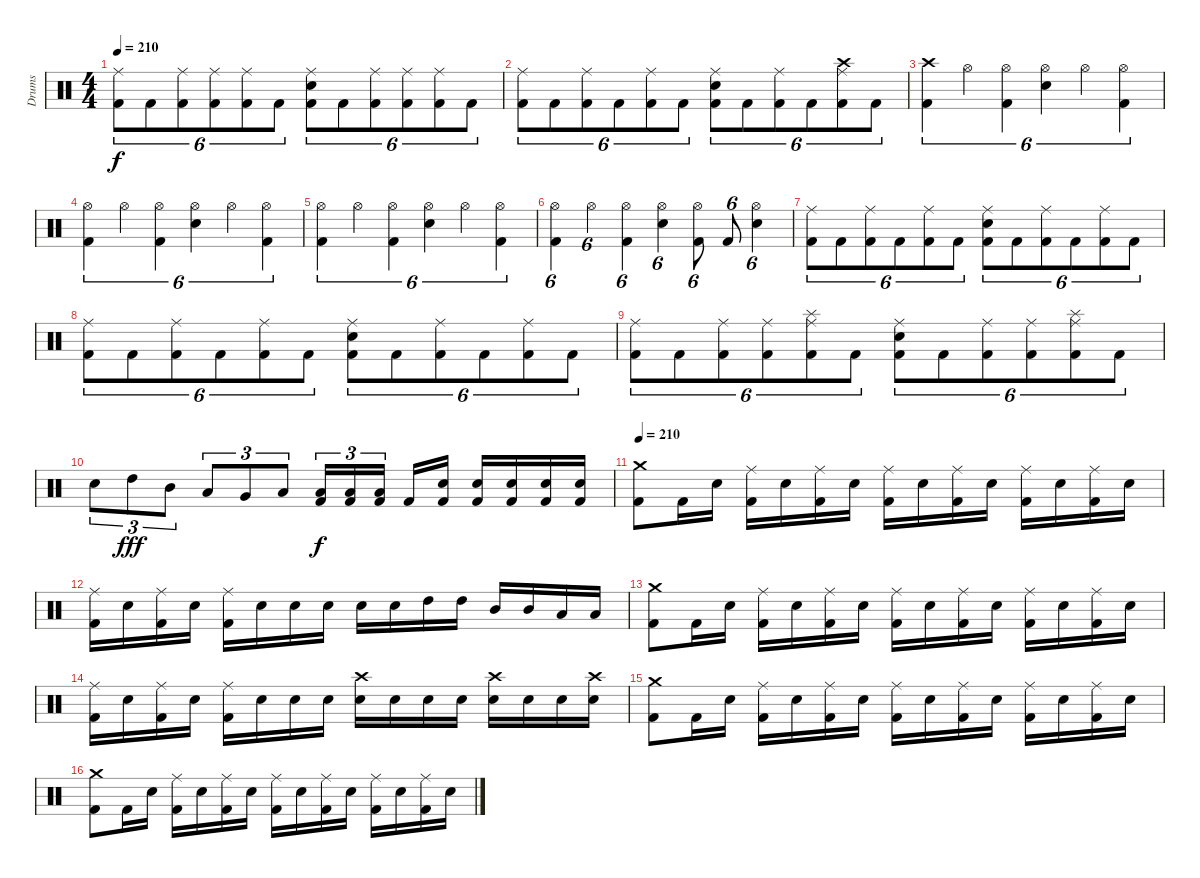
\track ("Drums" "Drums") {instrument percussion}
\staff {score}
\articulation defaults
\ts (4 4)
\tempo 210
\clef neutral
\ks c
("Kick (hit) 2" "Ride (middle)").8{tu (6 4) dy f} "Kick (hit) 2".8{tu (6 4)} ("Kick (hit) 2" "Ride (middle)").8{tu (6 4)} ("Kick (hit) 2" "Ride (middle)").8{tu (6 4)} ("Kick (hit) 2" "Ride (middle)").8{tu (6 4)} "Kick (hit) 2".8{tu (6 4)} ("Kick (hit) 2" "Snare (hit) 2" "Ride (middle)").8{tu (6 4)} "Kick (hit) 2".8{tu (6 4)} ("Kick (hit) 2" "Ride (middle)").8{tu (6 4)} ("Kick (hit) 2" "Ride (middle)").8{tu (6 4)} ("Kick (hit) 2" "Ride (middle)").8{tu (6 4)} "Kick (hit) 2".8{tu (6 4)} |
("Kick (hit) 2" "Ride (middle)").8{tu (6 4)} "Kick (hit) 2".8{tu (6 4)} ("Kick (hit) 2" "Ride (middle)").8{tu (6 4)} "Kick (hit) 2".8{tu (6 4)} ("Kick (hit) 2" "Ride (middle)").8{tu (6 4)} "Kick (hit) 2".8{tu (6 4)} ("Kick (hit) 2" "Snare (hit) 2" "Ride (middle)").8{tu (6 4)} "Kick (hit) 2".8{tu (6 4)} ("Kick (hit) 2" "Ride (middle)").8{tu (6 4)} "Kick (hit) 2".8{tu (6 4)} ("Kick (hit) 2" "Ride (middle)" "Crash high (hit)").8{tu (6 4)} "Kick (hit) 2".8{tu (6 4)} |
("Kick (hit) 2" "Crash high (hit)").4{tu (6 4)} "Hi-Hat (open)".4{tu (6 4)} ("Kick (hit) 2" "Hi-Hat (open)").4{tu (6 4)} ("Snare (hit) 2" "Hi-Hat (open)").4{tu (6 4)} "Hi-Hat (open)".4{tu (6 4)} ("Kick (hit) 2" "Hi-Hat (open)").4{tu (6 4)} |
("Kick (hit) 2" "Hi-Hat (open)").4{tu (6 4)} "Hi-Hat (open)".4{tu (6 4)} ("Kick (hit) 2" "Hi-Hat (open)").4{tu (6 4)} ("Snare (hit) 2" "Hi-Hat (open)").4{tu (6 4)} "Hi-Hat (open)".4{tu (6 4)} ("Kick (hit) 2" "Hi-Hat (open)").4{tu (6 4)} |
("Kick (hit) 2" "Hi-Hat (open)").4{tu (6 4)} "Hi-Hat (open)".4{tu (6 4)} ("Kick (hit) 2" "Hi-Hat (open)").4{tu (6 4)} ("Snare (hit) 2" "Hi-Hat (open)").4{tu (6 4)} "Hi-Hat (open)".4{tu (6 4)} ("Kick (hit) 2" "Hi-Hat (open)").4{tu (6 4)} |
("Kick (hit) 2" "Hi-Hat (open)").4{tu (6 4)} "Hi-Hat (open)".4{tu (6 4)} ("Kick (hit) 2" "Hi-Hat (open)").4{tu (6 4)} ("Snare (hit) 2" "Hi-Hat (open)").4{tu (6 4)} ("Kick (hit) 2" "Hi-Hat (open)").8{tu (6 4)} "Kick (hit) 2".8{tu (6 4)} ("Snare (hit) 2" "Hi-Hat (open)").4{tu (6 4)} |
("Kick (hit) 2" "Ride (middle)").8{tu (6 4)} "Kick (hit) 2".8{tu (6 4)} ("Kick (hit) 2" "Ride (middle)").8{tu (6 4)} "Kick (hit) 2".8{tu (6 4)} ("Kick (hit) 2" "Ride (middle)").8{tu (6 4)} "Kick (hit) 2".8{tu (6 4)} ("Kick (hit) 2" "Snare (hit) 2" "Ride (middle)").8{tu (6 4)} "Kick (hit) 2".8{tu (6 4)} ("Kick (hit) 2" "Ride (middle)").8{tu (6 4)} "Kick (hit) 2".8{tu (6 4)} ("Kick (hit) 2" "Ride (middle)").8{tu (6 4)} "Kick (hit) 2".8{tu (6 4)} |
("Kick (hit) 2" "Ride (middle)").8{tu (6 4)} "Kick (hit) 2".8{tu (6 4)} ("Kick (hit) 2" "Ride (middle)").8{tu (6 4)} "Kick (hit) 2".8{tu (6 4)} ("Kick (hit) 2" "Ride (middle)").8{tu (6 4)} "Kick (hit) 2".8{tu (6 4)} ("Kick (hit) 2" "Snare (hit) 2" "Ride (middle)").8{tu (6 4)} "Kick (hit) 2".8{tu (6 4)} ("Kick (hit) 2" "Ride (middle)").8{tu (6 4)} "Kick (hit) 2".8{tu (6 4)} ("Kick (hit) 2" "Ride (middle)").8{tu (6 4)} "Kick (hit) 2".8{tu (6 4)} |
("Kick (hit) 2" "Ride (middle)").8{tu (6 4)} "Kick (hit) 2".8{tu (6 4)} ("Kick (hit) 2" "Ride (middle)").8{tu (6 4)} ("Kick (hit) 2" "Ride (middle)").8{tu (6 4)} ("Kick (hit) 2" "Ride (middle)" "Splash (hit)").8{tu (6 4)} "Kick (hit) 2".8{tu (6 4)} ("Kick (hit) 2" "Snare (hit) 2" "Ride (middle)").8{tu (6 4)} "Kick (hit) 2".8{tu (6 4)} ("Kick (hit) 2" "Ride (middle)").8{tu (6 4)} ("Kick (hit) 2" "Ride (middle)").8{tu (6 4)} ("Kick (hit) 2" "Ride (middle)" "Splash (hit)").8{tu (6 4)} "Kick (hit) 2".8{tu (6 4)} |
"Electric Snare (hit)".8{tu (3 2)} "High Tom (hit)".8{tu (3 2) dy fff} "Mid Tom (hit)".8{tu (3 2)} "Low Tom (hit)".8{tu (3 2)} "Very Low Tom (hit)".8{tu (3 2)} "Low Floor Tom (hit)".8{tu (3 2)} ("Kick (hit) 2" "Low Tom (hit)").16{tu (3 2) dy f} ("Kick (hit) 2" "Low Tom (hit)").16{tu (3 2)} ("Kick (hit) 2" "Low Tom (hit)").16{tu (3 2)} "Kick (hit) 2".16 ("Kick (hit) 2" "Electric Snare (hit)").16 ("Kick (hit) 2" "Electric Snare (hit)").16 ("Kick (hit) 2" "Electric Snare (hit)").16 ("Kick (hit) 2" "Electric Snare (hit)").16 ("Kick (hit) 2" "Electric Snare (hit)").16 |
\tempo 210
("Kick (hit) 2" "Crash medium (hit)").8 "Kick (hit) 2".16 "Electric Snare (hit)".16 ("Kick (hit) 2" "Ride (middle)").16 "Electric Snare (hit)".16 ("Kick (hit) 2" "Ride (middle)").16 "Electric Snare (hit)".16 ("Kick (hit) 2" "Ride (middle)").16 "Electric Snare (hit)".16 ("Kick (hit) 2" "Ride (middle)").16 "Electric Snare (hit)".16 ("Kick (hit) 2" "Ride (middle)").16 "Electric Snare (hit)".16 ("Kick (hit) 2" "Ride (middle)").16 "Electric Snare (hit)".16 |
("Kick (hit) 2" "Ride (middle)").16 "Electric Snare (hit)".16 ("Kick (hit) 2" "Ride (middle)").16 "Electric Snare (hit)".16 ("Kick (hit) 2" "Ride (middle)").16 "Electric Snare (hit)".16 "Electric Snare (hit)".16 "Electric Snare (hit)".16 "Electric Snare (hit)".16 "Electric Snare (hit)".16 "High Tom (hit)".16 "High Tom (hit)".16 "Mid Tom (hit)".16 "Mid Tom (hit)".16 "Low Tom (hit)".16 "Low Tom (hit)".16 |
("Kick (hit) 2" "Crash medium (hit)").8 "Kick (hit) 2".16 "Electric Snare (hit)".16 ("Kick (hit) 2" "Ride (middle)").16 "Electric Snare (hit)".16 ("Kick (hit) 2" "Ride (middle)").16 "Electric Snare (hit)".16 ("Kick (hit) 2" "Ride (middle)").16 "Electric Snare (hit)".16 ("Kick (hit) 2" "Ride (middle)").16 "Electric Snare (hit)".16 ("Kick (hit) 2" "Ride (middle)").16 "Electric Snare (hit)".16 ("Kick (hit) 2" "Ride (middle)").16 "Electric Snare (hit)".16 |
("Kick (hit) 2" "Ride (middle)").16 "Electric Snare (hit)".16 ("Kick (hit) 2" "Ride (middle)").16 "Electric Snare (hit)".16 ("Kick (hit) 2" "Ride (middle)").16 "Electric Snare (hit)".16 "Electric Snare (hit)".16 "Electric Snare (hit)".16 ("Crash high (hit)" "Electric Snare (hit)").16 "Electric Snare (hit)".16 "Electric Snare (hit)".16 "Electric Snare (hit)".16 ("Crash high (hit)" "Electric Snare (hit)").16 "Electric Snare (hit)".16 "Electric Snare (hit)".16 ("Crash high (hit)" "Electric Snare (hit)").16 |
("Kick (hit) 2" "Crash medium (hit)").8 "Kick (hit) 2".16 "Electric Snare (hit)".16 ("Kick (hit) 2" "Ride (middle)").16 "Electric Snare (hit)".16 ("Kick (hit) 2" "Ride (middle)").16 "Electric Snare (hit)".16 ("Kick (hit) 2" "Ride (middle)").16 "Electric Snare (hit)".16 ("Kick (hit) 2" "Ride (middle)").16 "Electric Snare (hit)".16 ("Kick (hit) 2" "Ride (middle)").16 "Electric Snare (hit)".16 ("Kick (hit) 2" "Ride (middle)").16 "Electric Snare (hit)".16 |
("Kick (hit) 2" "Crash medium (hit)").8 "Kick (hit) 2".16 "Electric Snare (hit)".16 ("Kick (hit) 2" "Ride (middle)").16 "Electric Snare (hit)".16 ("Kick (hit) 2" "Ride (middle)").16 "Electric Snare (hit)".16 ("Kick (hit) 2" "Ride (middle)").16 "Electric Snare (hit)".16 ("Kick (hit) 2" "Ride (middle)").16 "Electric Snare (hit)".16 ("Kick (hit) 2" "Ride (middle)").16 "Electric Snare (hit)".16 ("Kick (hit) 2" "Ride (middle)").16 "Electric Snare (hit)".16
